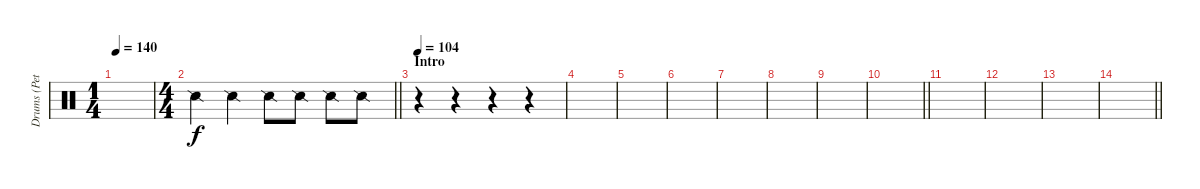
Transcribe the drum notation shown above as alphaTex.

\track ("Drums (Peter)" "Drums (Pet") {instrument percussion}
\staff {score}
\articulation defaults
\ts (1 4)
\tempo 140
\clef neutral
\ks c
|
\ts (4 4)
\barLineRight lightlight "Snare (side stick) 2".4 "Snare (side stick) 2".4 "Snare (side stick) 2".8 "Snare (side stick) 2".8 "Snare (side stick) 2".8 "Snare (side stick) 2".8
|
\section ("" "Intro")
\tempo 104
r.4 r.4 r.4 r.4 |
|
|
|
|
|
|
\barLineRight lightlight
|
|
|
|
\barLineRight lightlight
